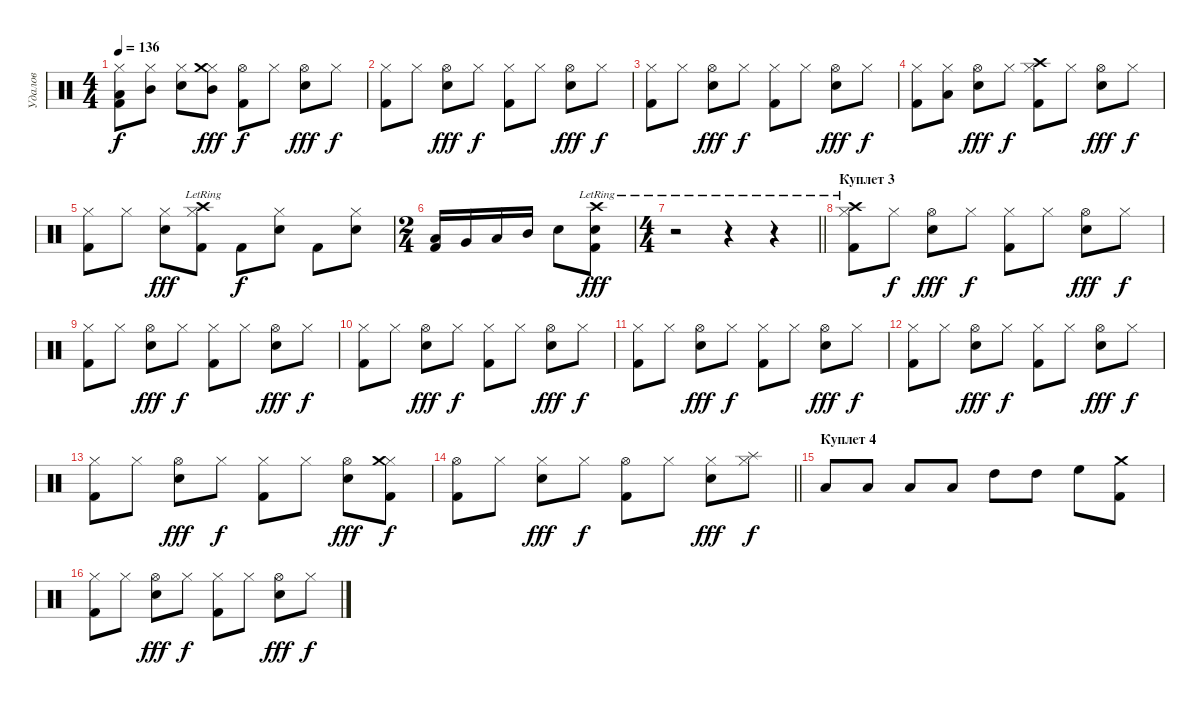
\track ("Удалов" "Удалов") {instrument percussion}
\staff {score}
\articulation defaults
\ts (4 4)
\tempo 136
\clef neutral
\ks c
("Hi-Hat (closed)" "Kick (hit) 2" "Low Floor Tom (hit)").8{dy f} ("Hi-Hat (closed)" "Mid Tom (hit)").8 ("Hi-Hat (closed)" "Snare (hit) 2").8 ("Hi-Hat (closed)" "Mid Tom (hit)" "Crash medium (hit)").8{dy fff} ("Hi-Hat (open)" "Kick (hit) 2").8{dy f} "Hi-Hat (closed)".8 ("Hi-Hat (open)" "Snare (hit) 2").8{dy fff} "Hi-Hat (closed)".8{dy f} |
("Hi-Hat (closed)" "Kick (hit) 2").8 "Hi-Hat (closed)".8 ("Hi-Hat (open)" "Snare (hit) 2").8{dy fff} "Hi-Hat (closed)".8{dy f} ("Hi-Hat (closed)" "Kick (hit) 2").8 "Hi-Hat (closed)".8 ("Hi-Hat (open)" "Snare (hit) 2").8{dy fff} "Hi-Hat (closed)".8{dy f} |
("Hi-Hat (closed)" "Kick (hit) 2").8 "Hi-Hat (closed)".8 ("Hi-Hat (open)" "Snare (hit) 2").8{dy fff} "Hi-Hat (closed)".8{dy f} ("Hi-Hat (closed)" "Kick (hit) 2").8 "Hi-Hat (closed)".8 ("Hi-Hat (open)" "Snare (hit) 2").8{dy fff} "Hi-Hat (closed)".8{dy f} |
("Hi-Hat (closed)" "Kick (hit) 2").8 ("Hi-Hat (closed)" "Low Tom (hit)").8 ("Hi-Hat (open)" "Snare (hit) 2").8{dy fff} "Hi-Hat (closed)".8{dy f} ("Hi-Hat (closed)" "Kick (hit) 2" "Crash high (hit)").8 "Hi-Hat (closed)".8 ("Hi-Hat (open)" "Snare (hit) 2").8{dy fff} "Hi-Hat (closed)".8{dy f} |
("Hi-Hat (closed)" "Kick (hit) 2").8 "Hi-Hat (closed)".8 ("Hi-Hat (closed)" "Snare (hit) 2").8{dy fff} ("Hi-Hat (closed)" "Kick (hit) 2" "Crash high (hit)"{lr}).8 "Kick (hit) 2".8{dy f} ("Hi-Hat (closed)" "Snare (hit) 2").8 "Kick (hit) 2".8 ("Hi-Hat (closed)" "Snare (hit) 2").8 |
\ts (2 4)
("Low Floor Tom (hit)" "Kick (hit) 2").16 "Very Low Tom (hit)".16 "Low Tom (hit)".16 "Mid Tom (hit)".16 "Snare (hit) 2".8 ("Snare (hit) 2" "Crash high (hit)"{lr} "Kick (hit) 2").8{dy fff} |
\ts (4 4)
\barLineRight lightlight
r.2 r.4 r.4 |
\section ("" "Куплет 3")
("Hi-Hat (closed)" "Kick (hit) 2" "Crash high (hit)"{lr}).8 "Hi-Hat (closed)".8{dy f} ("Hi-Hat (open)" "Snare (hit) 2").8{dy fff} "Hi-Hat (closed)".8{dy f} ("Hi-Hat (closed)" "Kick (hit) 2").8 "Hi-Hat (closed)".8 ("Hi-Hat (open)" "Snare (hit) 2").8{dy fff} "Hi-Hat (closed)".8{dy f} |
("Hi-Hat (closed)" "Kick (hit) 2").8 "Hi-Hat (closed)".8 ("Hi-Hat (open)" "Snare (hit) 2").8{dy fff} "Hi-Hat (closed)".8{dy f} ("Hi-Hat (closed)" "Kick (hit) 2").8 "Hi-Hat (closed)".8 ("Hi-Hat (open)" "Snare (hit) 2").8{dy fff} "Hi-Hat (closed)".8{dy f} |
("Hi-Hat (closed)" "Kick (hit) 2").8 "Hi-Hat (closed)".8 ("Hi-Hat (open)" "Snare (hit) 2").8{dy fff} "Hi-Hat (closed)".8{dy f} ("Hi-Hat (closed)" "Kick (hit) 2").8 "Hi-Hat (closed)".8 ("Hi-Hat (open)" "Snare (hit) 2").8{dy fff} "Hi-Hat (closed)".8{dy f} |
("Hi-Hat (closed)" "Kick (hit) 2").8 "Hi-Hat (closed)".8 ("Hi-Hat (open)" "Snare (hit) 2").8{dy fff} "Hi-Hat (closed)".8{dy f} ("Hi-Hat (closed)" "Kick (hit) 2").8 "Hi-Hat (closed)".8 ("Hi-Hat (open)" "Snare (hit) 2").8{dy fff} "Hi-Hat (closed)".8{dy f} |
("Hi-Hat (closed)" "Kick (hit) 2").8 "Hi-Hat (closed)".8 ("Hi-Hat (open)" "Snare (hit) 2").8{dy fff} "Hi-Hat (closed)".8{dy f} ("Hi-Hat (closed)" "Kick (hit) 2").8 "Hi-Hat (closed)".8 ("Hi-Hat (open)" "Snare (hit) 2").8{dy fff} "Hi-Hat (closed)".8{dy f} |
("Hi-Hat (closed)" "Kick (hit) 2").8 "Hi-Hat (closed)".8 ("Hi-Hat (open)" "Snare (hit) 2").8{dy fff} "Hi-Hat (closed)".8{dy f} ("Hi-Hat (closed)" "Kick (hit) 2").8 "Hi-Hat (closed)".8 ("Hi-Hat (open)" "Snare (hit) 2").8{dy fff} ("Hi-Hat (closed)" "Kick (hit) 2" "Crash medium (hit)").8{dy f} |
\barLineRight lightlight
("Hi-Hat (open)" "Kick (hit) 2").8 "Hi-Hat (closed)".8 ("Hi-Hat (closed)" "Snare (hit) 2").8{dy fff} "Hi-Hat (closed)".8{dy f} ("Hi-Hat (open)" "Kick (hit) 2").8 "Hi-Hat (closed)".8 ("Hi-Hat (closed)" "Snare (hit) 2").8{dy fff} ("Hi-Hat (closed)" "Splash (hit)").8{dy f} |
\section ("" "Куплет 4")
"Low Floor Tom (hit)".8 "Low Floor Tom (hit)".8 "Low Tom (hit)".8 "Low Tom (hit)".8 "High Tom (hit)".8 "High Tom (hit)".8 "High Floor Tom (hit)".8 ("Crash medium (hit)" "Kick (hit) 2").8 |
("Hi-Hat (closed)" "Kick (hit) 2").8 "Hi-Hat (closed)".8 ("Hi-Hat (open)" "Snare (hit) 2").8{dy fff} "Hi-Hat (closed)".8{dy f} ("Hi-Hat (closed)" "Kick (hit) 2").8 "Hi-Hat (closed)".8 ("Hi-Hat (open)" "Snare (hit) 2").8{dy fff} "Hi-Hat (closed)".8{dy f}
